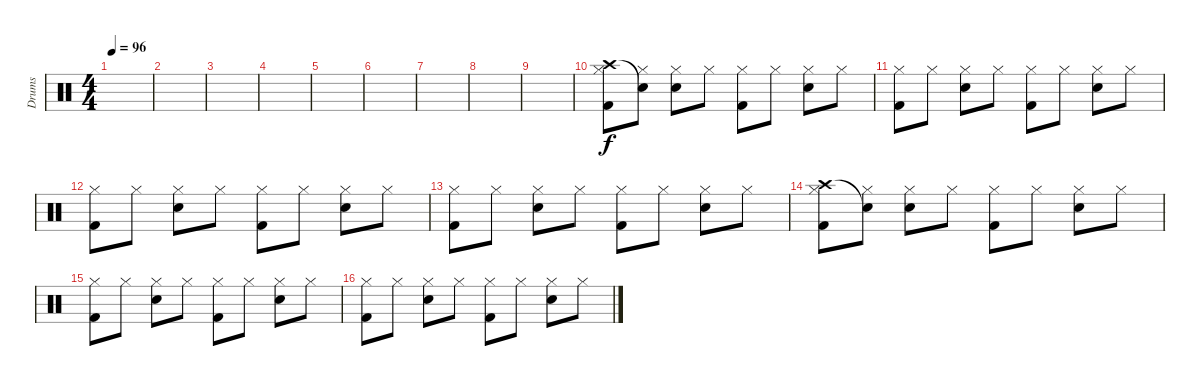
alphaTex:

\track ("Drums" "Drums") {instrument percussion}
\staff {score}
\articulation defaults
\ts (4 4)
\tempo 96
\clef neutral
\ks c
|
|
|
|
|
|
|
|
|
("Crash high (hit)" "Hi-Hat (closed)" "Kick (hit) 2").8 ("Snare (hit)"{t} "Hi-Hat (closed)").8 ("Hi-Hat (closed)" "Snare (hit) 2").8 "Hi-Hat (closed)".8 ("Hi-Hat (closed)" "Kick (hit) 2").8 "Hi-Hat (closed)".8 ("Hi-Hat (closed)" "Snare (hit) 2").8 "Hi-Hat (closed)".8 |
("Hi-Hat (closed)" "Kick (hit) 2").8 "Hi-Hat (closed)".8 ("Hi-Hat (closed)" "Snare (hit) 2").8 "Hi-Hat (closed)".8 ("Hi-Hat (closed)" "Kick (hit) 2").8 "Hi-Hat (closed)".8 ("Hi-Hat (closed)" "Snare (hit) 2").8 "Hi-Hat (closed)".8 |
("Hi-Hat (closed)" "Kick (hit) 2").8 "Hi-Hat (closed)".8 ("Hi-Hat (closed)" "Snare (hit) 2").8 "Hi-Hat (closed)".8 ("Hi-Hat (closed)" "Kick (hit) 2").8 "Hi-Hat (closed)".8 ("Hi-Hat (closed)" "Snare (hit) 2").8 "Hi-Hat (closed)".8 |
("Hi-Hat (closed)" "Kick (hit) 2").8 "Hi-Hat (closed)".8 ("Hi-Hat (closed)" "Snare (hit) 2").8 "Hi-Hat (closed)".8 ("Hi-Hat (closed)" "Kick (hit) 2").8 "Hi-Hat (closed)".8 ("Hi-Hat (closed)" "Snare (hit) 2").8 "Hi-Hat (closed)".8 |
("Crash high (hit)" "Hi-Hat (closed)" "Kick (hit) 2").8 ("Snare (hit)"{t} "Hi-Hat (closed)").8 ("Hi-Hat (closed)" "Snare (hit) 2").8 "Hi-Hat (closed)".8 ("Hi-Hat (closed)" "Kick (hit) 2").8 "Hi-Hat (closed)".8 ("Hi-Hat (closed)" "Snare (hit) 2").8 "Hi-Hat (closed)".8 |
("Hi-Hat (closed)" "Kick (hit) 2").8 "Hi-Hat (closed)".8 ("Hi-Hat (closed)" "Snare (hit) 2").8 "Hi-Hat (closed)".8 ("Hi-Hat (closed)" "Kick (hit) 2").8 "Hi-Hat (closed)".8 ("Hi-Hat (closed)" "Snare (hit) 2").8 "Hi-Hat (closed)".8 |
("Hi-Hat (closed)" "Kick (hit) 2").8 "Hi-Hat (closed)".8 ("Hi-Hat (closed)" "Snare (hit) 2").8 "Hi-Hat (closed)".8 ("Hi-Hat (closed)" "Kick (hit) 2").8 "Hi-Hat (closed)".8 ("Hi-Hat (closed)" "Snare (hit) 2").8 "Hi-Hat (closed)".8
